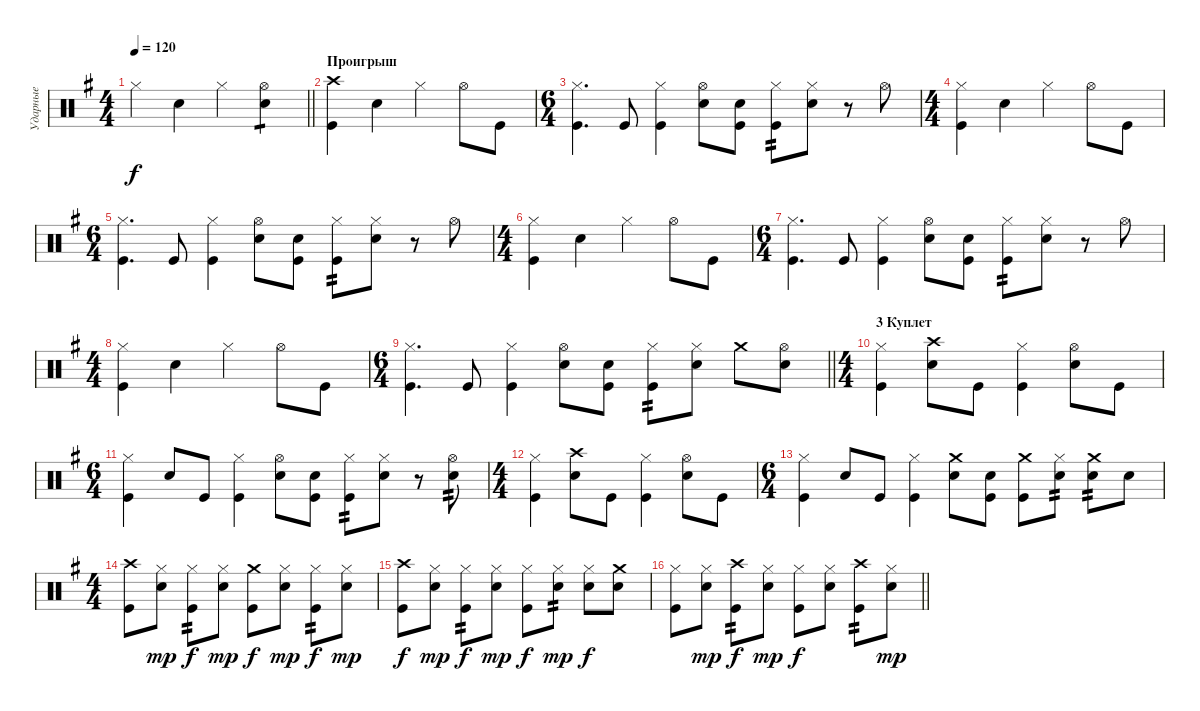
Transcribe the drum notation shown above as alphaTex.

\track ("Ударные" "Ударные") {instrument percussion}
\staff {score}
\articulation defaults
\ts (4 4)
\tempo 120
\clef neutral
\barLineRight lightlight
\ks eminor "Hi-Hat (closed)".4{dy f} "Snare (hit) 2".4 "Hi-Hat (closed)".4
("Hi-Hat (open)" "Snare (hit) 2").4{tp 1} |
\section ("" "Проигрыш")
("Crash high (hit)" "Kick (hit)").4 "Snare (hit) 2".4 "Hi-Hat (closed)".4 "Hi-Hat (open)".8 "Kick (hit)".8 |
\ts (6 4)
("Hi-Hat (closed)" "Kick (hit)").4{d} "Kick (hit)".8 ("Hi-Hat (closed)" "Kick (hit)").4 ("Hi-Hat (open)" "Snare (hit) 2").8 ("Snare (hit) 2" "Kick (hit)").8 ("Hi-Hat (closed)" "Kick (hit)").8{tp 2} ("Hi-Hat (closed)" "Snare (hit) 2").8 r.8 "Hi-Hat (open)".8 |
\ts (4 4)
("Hi-Hat (closed)" "Kick (hit)").4 "Snare (hit) 2".4 "Hi-Hat (closed)".4 "Hi-Hat (open)".8 "Kick (hit)".8 |
\ts (6 4)
("Hi-Hat (closed)" "Kick (hit)").4{d} "Kick (hit)".8 ("Hi-Hat (closed)" "Kick (hit)").4 ("Hi-Hat (open)" "Snare (hit) 2").8 ("Snare (hit) 2" "Kick (hit)").8 ("Hi-Hat (closed)" "Kick (hit)").8{tp 2} ("Hi-Hat (closed)" "Snare (hit) 2").8 r.8 "Hi-Hat (open)".8 |
\ts (4 4)
("Hi-Hat (closed)" "Kick (hit)").4 "Snare (hit) 2".4 "Hi-Hat (closed)".4 "Hi-Hat (open)".8 "Kick (hit)".8 |
\ts (6 4)
("Hi-Hat (closed)" "Kick (hit)").4{d} "Kick (hit)".8 ("Hi-Hat (closed)" "Kick (hit)").4 ("Hi-Hat (open)" "Snare (hit) 2").8 ("Snare (hit) 2" "Kick (hit)").8 ("Hi-Hat (closed)" "Kick (hit)").8{tp 2} ("Hi-Hat (closed)" "Snare (hit) 2").8 r.8 "Hi-Hat (open)".8 |
\ts (4 4)
("Hi-Hat (closed)" "Kick (hit)").4 "Snare (hit) 2".4 "Hi-Hat (closed)".4 "Hi-Hat (open)".8 "Kick (hit)".8 |
\ts (6 4)
\barLineRight lightlight
("Hi-Hat (closed)" "Kick (hit)").4{d} "Kick (hit)".8 ("Hi-Hat (closed)" "Kick (hit)").4 ("Hi-Hat (open)" "Snare (hit) 2").8 ("Snare (hit) 2" "Kick (hit)").8 ("Hi-Hat (closed)" "Kick (hit)").8{tp 2} ("Hi-Hat (closed)" "Snare (hit) 2").8 "Crash medium (hit)".8 ("Hi-Hat (open)" "Snare (hit) 2").8 |
\ts (4 4)
\section ("" "3 Куплет")
("Hi-Hat (closed)" "Kick (hit)").4 ("Crash high (hit)" "Snare (hit) 2").8 "Kick (hit)".8 ("Hi-Hat (closed)" "Kick (hit)").4 ("Hi-Hat (open)" "Snare (hit) 2").8 "Kick (hit)".8 |
\ts (6 4)
("Hi-Hat (closed)" "Kick (hit)").4 "Snare (hit) 2".8 "Kick (hit)".8 ("Hi-Hat (closed)" "Kick (hit)").4 ("Hi-Hat (open)" "Snare (hit) 2").8 ("Snare (hit) 2" "Kick (hit)").8 ("Hi-Hat (closed)" "Kick (hit)").8{tp 2} ("Hi-Hat (closed)" "Snare (hit) 2").8 r.8 ("Hi-Hat (open)" "Snare (hit) 2").8{tp 2} |
\ts (4 4)
("Hi-Hat (closed)" "Kick (hit)").4 ("Crash high (hit)" "Snare (hit) 2").8 "Kick (hit)".8 ("Hi-Hat (closed)" "Kick (hit)").4 ("Hi-Hat (open)" "Snare (hit) 2").8 "Kick (hit)".8 |
\ts (6 4)
("Hi-Hat (closed)" "Kick (hit)").4 "Snare (hit) 2".8 "Kick (hit)".8 ("Hi-Hat (closed)" "Kick (hit)").4 ("Crash medium (hit)" "Snare (hit) 2").8 ("Snare (hit) 2" "Kick (hit)").8 ("Crash medium (hit)" "Kick (hit)").8 ("Hi-Hat (closed)" "Snare (hit) 2").8{tp 2} ("Crash medium (hit)" "Snare (hit) 2").8{tp 2} "Snare (hit) 2".8 |
\ts (4 4)
("Crash high (hit)" "Kick (hit)").8 ("Hi-Hat (closed)" "Snare (hit) 2").8{dy mp} ("Hi-Hat (closed)" "Kick (hit)").8{tp 2 dy f} ("Hi-Hat (closed)" "Snare (hit) 2").8{dy mp} ("Crash medium (hit)" "Kick (hit)").8{dy f} ("Hi-Hat (closed)" "Snare (hit) 2").8{dy mp} ("Hi-Hat (closed)" "Kick (hit)").8{tp 2 dy f} ("Hi-Hat (closed)" "Snare (hit) 2").8{dy mp} |
("Crash high (hit)" "Kick (hit)").8{dy f} ("Hi-Hat (closed)" "Snare (hit) 2").8{dy mp} ("Hi-Hat (closed)" "Kick (hit)").8{tp 2 dy f} ("Hi-Hat (closed)" "Snare (hit) 2").8{dy mp} ("Hi-Hat (closed)" "Kick (hit)").8{dy f} ("Hi-Hat (closed)" "Snare (hit) 2").8{tp 2 dy mp} ("Hi-Hat (closed)" "Snare (hit) 2").8{dy f} ("Crash medium (hit)" "Snare (hit) 2").8 |
\barLineRight lightlight
("Hi-Hat (closed)" "Kick (hit)").8 ("Hi-Hat (closed)" "Snare (hit) 2").8{dy mp} ("Crash high (hit)" "Kick (hit)").8{tp 2 dy f} ("Hi-Hat (closed)" "Snare (hit) 2").8{dy mp} ("Hi-Hat (closed)" "Kick (hit)").8{dy f} ("Hi-Hat (closed)" "Snare (hit) 2").8 ("Crash high (hit)" "Kick (hit)").8{tp 2} ("Hi-Hat (closed)" "Snare (hit) 2").8{dy mp}
